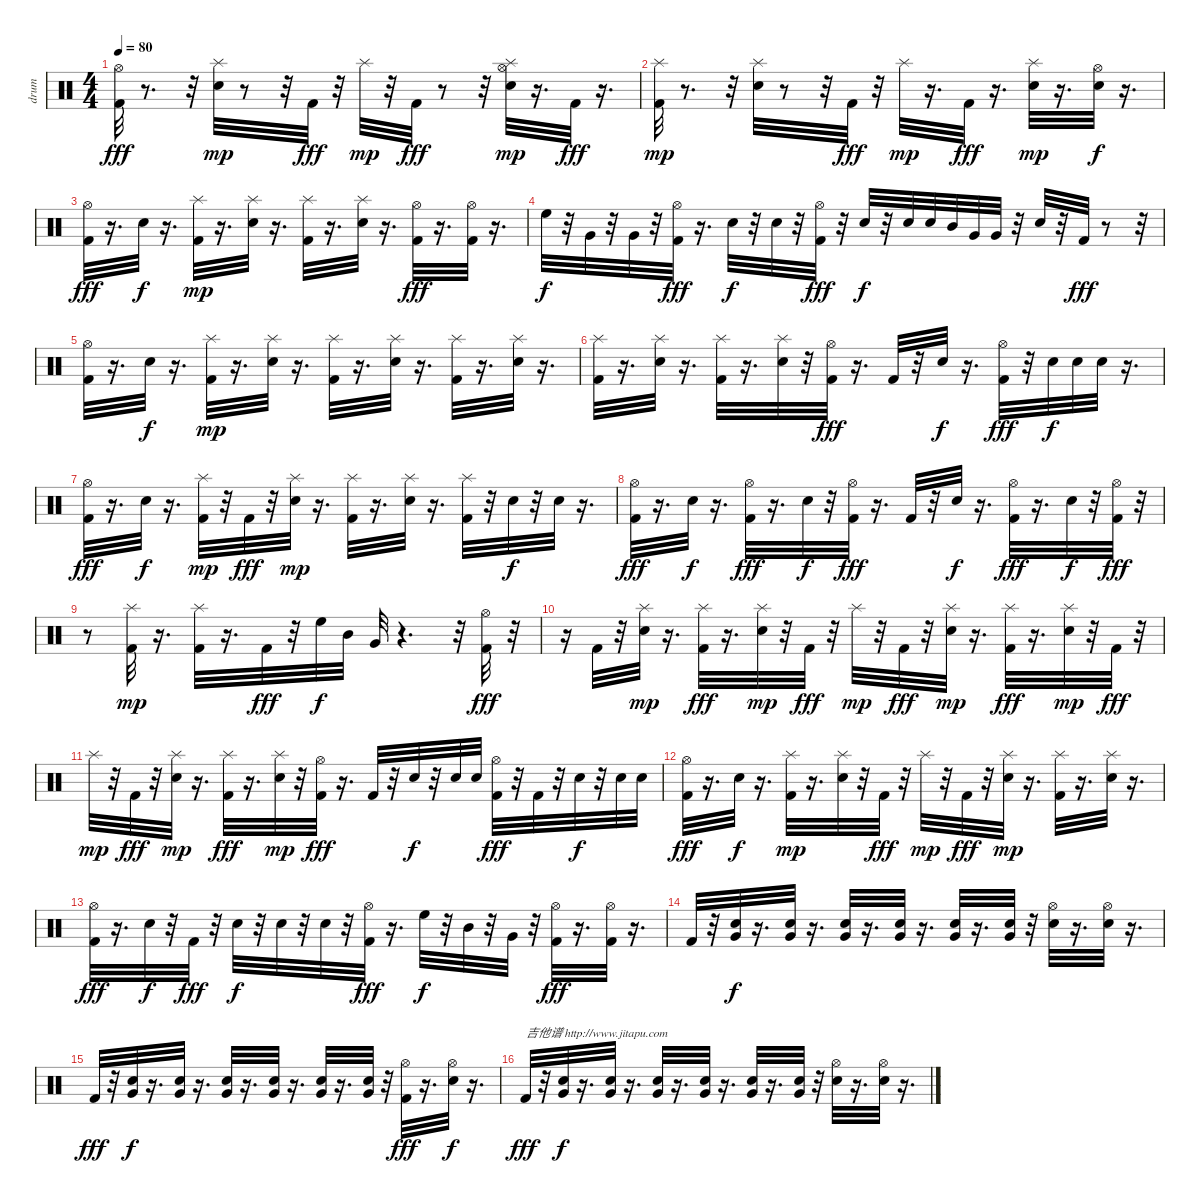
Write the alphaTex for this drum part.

\track ("drum" "drum") {instrument percussion}
\staff {score}
\articulation defaults
\ts (4 4)
\tempo 80
\clef neutral
\ks c
("Kick (hit) 2" "Hi-Hat (open)").32{dy fff} r.8{d} r.32 ("Snare (hit) 2" "Splash (hit)").32{dy mp} r.8 r.32 "Kick (hit) 2".32{dy fff} r.32 "Splash (hit)".32{dy mp} r.32 "Kick (hit) 2".32{dy fff} r.8 r.32 ("Snare (hit) 2" "Hi-Hat (open)" "Splash (hit)").32{dy mp} r.16{d} "Kick (hit) 2".32{dy fff} r.16{d} |
("Kick (hit) 2" "Splash (hit)").32{dy mp} r.8{d} r.32 ("Snare (hit) 2" "Splash (hit)").32 r.8 r.32 "Kick (hit) 2".32{dy fff} r.32 "Splash (hit)".32{dy mp} r.16{d} "Kick (hit) 2".32{dy fff} r.16{d} ("Snare (hit) 2" "Splash (hit)").32{dy mp} r.16{d} ("Snare (hit) 2" "Hi-Hat (open)").32{dy f} r.16{d} |
("Hi-Hat (open)" "Kick (hit) 2").32{dy fff} r.16{d} "Snare (hit) 2".32{dy f} r.16{d} ("Kick (hit) 2" "Splash (hit)").32{dy mp} r.16{d} ("Snare (hit) 2" "Splash (hit)").32 r.16{d} ("Kick (hit) 2" "Splash (hit)").32 r.16{d} ("Snare (hit) 2" "Splash (hit)").32 r.16{d} ("Hi-Hat (open)" "Kick (hit) 2").32{dy fff} r.16{d} ("Hi-Hat (open)" "Kick (hit) 2").32 r.16{d} |
"High Floor Tom (hit)".32{dy f} r.32 "Very Low Tom (hit)".32 r.32 "Very Low Tom (hit)".32 r.32 ("Kick (hit) 2" "Hi-Hat (open)").32{dy fff} r.16{d} "Snare (hit) 2".32{dy f} r.32 "Snare (hit) 2".32 r.32 ("Hi-Hat (open)" "Kick (hit) 2").32{dy fff} r.32 "Snare (hit) 2".32{dy f} r.32 "Snare (hit) 2".32 "Snare (hit) 2".32 "Mid Tom (hit)".32 "Very Low Tom (hit)".32 "Very Low Tom (hit)".32 r.32 "Snare (hit) 2".32 r.32 "Kick (hit) 2".32{dy fff} r.8 r.32 |
("Kick (hit) 2" "Hi-Hat (open)").32 r.16{d} "Snare (hit) 2".32{dy f} r.16{d} ("Kick (hit) 2" "Splash (hit)").32{dy mp} r.16{d} ("Splash (hit)" "Snare (hit) 2").32 r.16{d} ("Kick (hit) 2" "Splash (hit)").32 r.16{d} ("Splash (hit)" "Snare (hit) 2").32 r.16{d} ("Kick (hit) 2" "Splash (hit)").32 r.16{d} ("Splash (hit)" "Snare (hit) 2").32 r.16{d} |
("Kick (hit) 2" "Splash (hit)").32 r.16{d} ("Snare (hit) 2" "Splash (hit)").32 r.16{d} ("Kick (hit) 2" "Splash (hit)").32 r.16{d} ("Snare (hit) 2" "Splash (hit)").32 r.32 ("Kick (hit) 2" "Hi-Hat (open)").32{dy fff} r.16{d} "Kick (hit) 2".32 r.32 "Snare (hit) 2".32{dy f} r.16{d} ("Kick (hit) 2" "Hi-Hat (open)").32{dy fff} r.32 "Snare (hit) 2".32{dy f} "Snare (hit) 2".32 "Snare (hit) 2".32 r.16{d} |
("Kick (hit) 2" "Hi-Hat (open)").32{dy fff} r.16{d} "Snare (hit) 2".32{dy f} r.16{d} ("Kick (hit) 2" "Splash (hit)").32{dy mp} r.32 "Kick (hit) 2".32{dy fff} r.32 ("Snare (hit) 2" "Splash (hit)").32{dy mp} r.16{d} ("Kick (hit) 2" "Splash (hit)").32 r.16{d} ("Snare (hit) 2" "Splash (hit)").32 r.16{d} ("Kick (hit) 2" "Splash (hit)").32 r.32 "Snare (hit) 2".32{dy f} r.32 "Snare (hit) 2".32 r.16{d} |
("Kick (hit) 2" "Hi-Hat (open)").32{dy fff} r.16{d} "Snare (hit) 2".32{dy f} r.16{d} ("Kick (hit) 2" "Hi-Hat (open)").32{dy fff} r.16{d} "Snare (hit) 2".32{dy f} r.32 ("Hi-Hat (open)" "Kick (hit) 2").32{dy fff} r.16{d} "Kick (hit) 2".32 r.32 "Snare (hit) 2".32{dy f} r.16{d} ("Kick (hit) 2" "Hi-Hat (open)").32{dy fff} r.16{d} "Snare (hit) 2".32{dy f} r.32 ("Kick (hit) 2" "Hi-Hat (open)").32{dy fff} r.32 |
r.8 ("Kick (hit) 2" "Splash (hit)").32{dy mp} r.16{d} ("Kick (hit) 2" "Splash (hit)").32 r.16{d} "Kick (hit) 2".32{dy fff} r.32 "High Floor Tom (hit)".32{dy f} "Mid Tom (hit)".32 "Very Low Tom (hit)".32 r.4{d} r.32 ("Kick (hit) 2" "Hi-Hat (open)").32{dy fff} r.32 |
r.16 "Kick (hit) 2".32 r.32 ("Splash (hit)" "Snare (hit) 2").32{dy mp} r.16{d} ("Splash (hit)" "Kick (hit) 2").32{dy fff} r.16{d} ("Splash (hit)" "Snare (hit) 2").32{dy mp} r.32 "Kick (hit) 2".32{dy fff} r.32 "Splash (hit)".32{dy mp} r.32 "Kick (hit) 2".32{dy fff} r.32 ("Splash (hit)" "Snare (hit) 2").32{dy mp} r.16{d} ("Splash (hit)" "Kick (hit) 2").32{dy fff} r.16{d} ("Splash (hit)" "Snare (hit) 2").32{dy mp} r.32 "Kick (hit) 2".32{dy fff} r.32 |
"Splash (hit)".32{dy mp} r.32 "Kick (hit) 2".32{dy fff} r.32 ("Splash (hit)" "Snare (hit) 2").32{dy mp} r.16{d} ("Splash (hit)" "Kick (hit) 2").32{dy fff} r.16{d} ("Snare (hit) 2" "Splash (hit)").32{dy mp} r.32 ("Kick (hit) 2" "Hi-Hat (open)").32{dy fff} r.16{d} "Kick (hit) 2".32 r.32 "Snare (hit) 2".32{dy f} r.32 "Snare (hit) 2".32 "Snare (hit) 2".32 ("Kick (hit) 2" "Hi-Hat (open)").32{dy fff} r.32 "Kick (hit) 2".32 r.32 "Snare (hit) 2".32{dy f} r.32 "Snare (hit) 2".32 "Snare (hit) 2".32 |
("Hi-Hat (open)" "Kick (hit) 2").32{dy fff} r.16{d} "Snare (hit) 2".32{dy f} r.16{d} ("Kick (hit) 2" "Splash (hit)").32{dy mp} r.16{d} ("Snare (hit) 2" "Splash (hit)").32 r.32 "Kick (hit) 2".32{dy fff} r.32 "Splash (hit)".32{dy mp} r.32 "Kick (hit) 2".32{dy fff} r.32 ("Snare (hit) 2" "Splash (hit)").32{dy mp} r.16{d} ("Kick (hit) 2" "Splash (hit)").32 r.16{d} ("Snare (hit) 2" "Splash (hit)").32 r.16{d} |
("Hi-Hat (open)" "Kick (hit) 2").32{dy fff} r.16{d} "Snare (hit) 2".32{dy f} r.32 "Kick (hit) 2".32{dy fff} r.32 "Snare (hit) 2".32{dy f} r.32 "Snare (hit) 2".32 r.32 "Snare (hit) 2".32 r.32 ("Hi-Hat (open)" "Kick (hit) 2").32{dy fff} r.16{d} "High Floor Tom (hit)".32{dy f} r.32 "Mid Tom (hit)".32 r.32 "Very Low Tom (hit)".32 r.32 ("Hi-Hat (open)" "Kick (hit) 2").32{dy fff} r.16{d} ("Hi-Hat (open)" "Kick (hit) 2").32 r.16{d} |
"Kick (hit) 2".32 r.32 ("Snare (hit) 2" "Very Low Tom (hit)").32{dy f} r.16{d} ("Snare (hit) 2" "Very Low Tom (hit)").32 r.16{d} ("Very Low Tom (hit)" "Snare (hit) 2").32 r.16{d} ("Snare (hit) 2" "Very Low Tom (hit)").32 r.16{d} ("Snare (hit) 2" "Very Low Tom (hit)").32 r.16{d} ("Snare (hit) 2" "Very Low Tom (hit)").32 r.32 ("Snare (hit) 2" "Hi-Hat (open)").32 r.16{d} ("Snare (hit) 2" "Hi-Hat (open)").32 r.16{d} |
"Kick (hit) 2".32{dy fff} r.32 ("Snare (hit) 2" "Very Low Tom (hit)").32{dy f} r.16{d} ("Snare (hit) 2" "Very Low Tom (hit)").32 r.16{d} ("Very Low Tom (hit)" "Snare (hit) 2").32 r.16{d} ("Snare (hit) 2" "Very Low Tom (hit)").32 r.16{d} ("Snare (hit) 2" "Very Low Tom (hit)").32 r.16{d} ("Snare (hit) 2" "Very Low Tom (hit)").32 r.32 ("Kick (hit) 2" "Hi-Hat (open)").32{dy fff} r.16{d} ("Snare (hit) 2" "Hi-Hat (open)").32{dy f} r.16{d} |
"Kick (hit) 2".32{txt "吉他谱 http://www.jitapu.com" dy fff} r.32 ("Snare (hit) 2" "Very Low Tom (hit)").32{dy f} r.16{d} ("Snare (hit) 2" "Very Low Tom (hit)").32 r.16{d} ("Very Low Tom (hit)" "Snare (hit) 2").32 r.16{d} ("Snare (hit) 2" "Very Low Tom (hit)").32 r.16{d} ("Snare (hit) 2" "Very Low Tom (hit)").32 r.16{d} ("Snare (hit) 2" "Very Low Tom (hit)").32 r.32 ("Snare (hit) 2" "Hi-Hat (open)").32 r.16{d} ("Snare (hit) 2" "Hi-Hat (open)").32 r.16{d}
